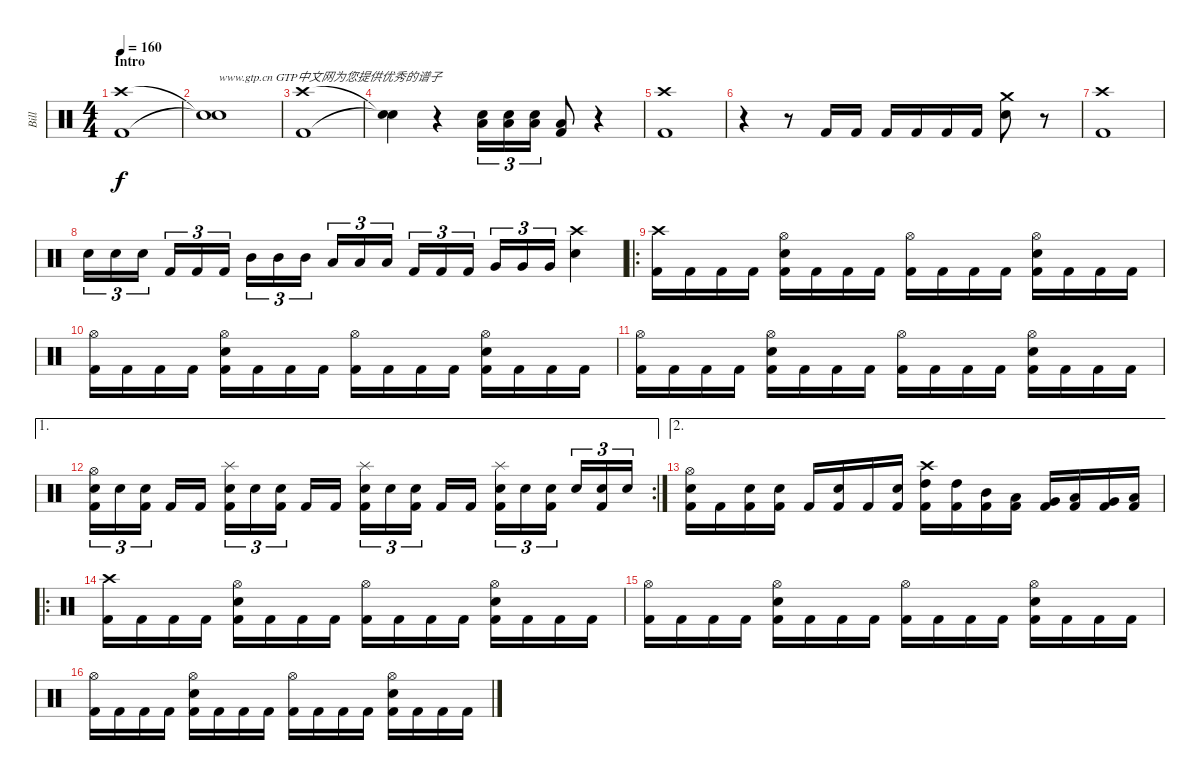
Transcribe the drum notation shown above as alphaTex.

\track ("Bill" "Bill") {instrument percussion}
\staff {score}
\articulation defaults
\ts (4 4)
\section ("" "Intro")
\tempo 160
\clef neutral
\ks c
("Crash high (hit)" "Kick (hit) 2").1{dy f} |
("Snare (hit)"{t} "Snare (hit)"{t}).1{txt "www.gtp.cn GTP中文网为您提供优秀的谱子"} |
("Crash high (hit)" "Kick (hit) 2").1 |
("Snare (hit)"{t} "Snare (hit)"{t}).4 r.4 ("Low Floor Tom (hit)" "Electric Snare (hit)").16{tu (3 2)} ("Low Floor Tom (hit)" "Electric Snare (hit)").16{tu (3 2)} ("Low Floor Tom (hit)" "Electric Snare (hit)").16{tu (3 2)} ("Low Floor Tom (hit)" "Kick (hit) 2").8 r.4 |
("Crash high (hit)" "Kick (hit) 2").1 |
r.4 r.8 "Kick (hit) 2".16 "Kick (hit) 2".16 "Kick (hit) 2".16 "Kick (hit) 2".16 "Kick (hit) 2".16 "Kick (hit) 2".16 ("Crash medium (hit)" "Electric Snare (hit)").8 r.8 |
("Crash high (hit)" "Kick (hit) 2").1 |
"Electric Snare (hit)".16{tu (3 2)} "Electric Snare (hit)".16{tu (3 2)} "Electric Snare (hit)".16{tu (3 2)} "Kick (hit) 2".16{tu (3 2)} "Kick (hit) 2".16{tu (3 2)} "Kick (hit) 2".16{tu (3 2)} "Mid Tom (hit)".16{tu (3 2)} "Mid Tom (hit)".16{tu (3 2)} "Mid Tom (hit)".16{tu (3 2)} "Low Tom (hit)".16{tu (3 2)} "Low Tom (hit)".16{tu (3 2)} "Low Tom (hit)".16{tu (3 2)} "Kick (hit) 2".16{tu (3 2)} "Kick (hit) 2".16{tu (3 2)} "Kick (hit) 2".16{tu (3 2)} "Very Low Tom (hit)".16{tu (3 2)} "Very Low Tom (hit)".16{tu (3 2)} "Very Low Tom (hit)".16{tu (3 2)} ("Crash high (hit)" "Electric Snare (hit)").4 |
\ro
("Crash high (hit)" "Kick (hit) 2").16 "Kick (hit) 2".16 "Kick (hit) 2".16 "Kick (hit) 2".16 ("Hi-Hat (open)" "Electric Snare (hit)" "Kick (hit) 2").16 "Kick (hit) 2".16 "Kick (hit) 2".16 "Kick (hit) 2".16 ("Hi-Hat (open)" "Kick (hit) 2").16 "Kick (hit) 2".16 "Kick (hit) 2".16 "Kick (hit) 2".16 ("Hi-Hat (open)" "Electric Snare (hit)" "Kick (hit) 2").16 "Kick (hit) 2".16 "Kick (hit) 2".16 "Kick (hit) 2".16 |
("Hi-Hat (open)" "Kick (hit) 2").16 "Kick (hit) 2".16 "Kick (hit) 2".16 "Kick (hit) 2".16 ("Hi-Hat (open)" "Electric Snare (hit)" "Kick (hit) 2").16 "Kick (hit) 2".16 "Kick (hit) 2".16 "Kick (hit) 2".16 ("Hi-Hat (open)" "Kick (hit) 2").16 "Kick (hit) 2".16 "Kick (hit) 2".16 "Kick (hit) 2".16 ("Hi-Hat (open)" "Electric Snare (hit)" "Kick (hit) 2").16 "Kick (hit) 2".16 "Kick (hit) 2".16 "Kick (hit) 2".16 |
("Hi-Hat (open)" "Kick (hit) 2").16 "Kick (hit) 2".16 "Kick (hit) 2".16 "Kick (hit) 2".16 ("Hi-Hat (open)" "Electric Snare (hit)" "Kick (hit) 2").16 "Kick (hit) 2".16 "Kick (hit) 2".16 "Kick (hit) 2".16 ("Hi-Hat (open)" "Kick (hit) 2").16 "Kick (hit) 2".16 "Kick (hit) 2".16 "Kick (hit) 2".16 ("Hi-Hat (open)" "Electric Snare (hit)" "Kick (hit) 2").16 "Kick (hit) 2".16 "Kick (hit) 2".16 "Kick (hit) 2".16 |
\ae 1
\rc 2
("Hi-Hat (open)" "Electric Snare (hit)" "Kick (hit) 2").16{tu (3 2)} "Electric Snare (hit)".16{tu (3 2)} ("Electric Snare (hit)" "Kick (hit) 2").16{tu (3 2)} "Kick (hit) 2".16 "Kick (hit) 2".16 ("Splash (hit)" "Electric Snare (hit)" "Kick (hit) 2").16{tu (3 2)} "Electric Snare (hit)".16{tu (3 2)} ("Electric Snare (hit)" "Kick (hit) 2").16{tu (3 2)} "Kick (hit) 2".16 "Kick (hit) 2".16 ("Splash (hit)" "Electric Snare (hit)" "Kick (hit) 2").16{tu (3 2)} "Electric Snare (hit)".16{tu (3 2)} ("Electric Snare (hit)" "Kick (hit) 2").16{tu (3 2)} "Kick (hit) 2".16 "Kick (hit) 2".16 ("Splash (hit)" "Electric Snare (hit)" "Kick (hit) 2").16{tu (3 2)} "Electric Snare (hit)".16{tu (3 2)} ("Electric Snare (hit)" "Kick (hit) 2").16{tu (3 2)} "Electric Snare (hit)".16{tu (3 2)} ("Electric Snare (hit)" "Kick (hit) 2").16{tu (3 2)} "Electric Snare (hit)".16{tu (3 2)} |
\ae 2
("Hi-Hat (open)" "Electric Snare (hit)" "Kick (hit) 2").16 "Kick (hit) 2".16 ("Electric Snare (hit)" "Kick (hit) 2").16 ("Electric Snare (hit)" "Kick (hit) 2").16 "Kick (hit) 2".16 ("Electric Snare (hit)" "Kick (hit) 2").16 "Kick (hit) 2".16 ("Electric Snare (hit)" "Kick (hit) 2").16 ("Crash high (hit)" "High Tom (hit)" "Kick (hit) 2").16 ("High Tom (hit)" "Kick (hit) 2").16 ("Mid Tom (hit)" "Kick (hit) 2").16 ("Low Tom (hit)" "Kick (hit) 2").16 ("Very Low Tom (hit)" "Kick (hit) 2").16 ("Low Floor Tom (hit)" "Kick (hit) 2").16 ("Very Low Tom (hit)" "Kick (hit) 2").16 ("Low Floor Tom (hit)" "Kick (hit) 2").16 |
\ro
("Crash high (hit)" "Kick (hit) 2").16 "Kick (hit) 2".16 "Kick (hit) 2".16 "Kick (hit) 2".16 ("Hi-Hat (open)" "Electric Snare (hit)" "Kick (hit) 2").16 "Kick (hit) 2".16 "Kick (hit) 2".16 "Kick (hit) 2".16 ("Hi-Hat (open)" "Kick (hit) 2").16 "Kick (hit) 2".16 "Kick (hit) 2".16 "Kick (hit) 2".16 ("Hi-Hat (open)" "Electric Snare (hit)" "Kick (hit) 2").16 "Kick (hit) 2".16 "Kick (hit) 2".16 "Kick (hit) 2".16 |
("Hi-Hat (open)" "Kick (hit) 2").16 "Kick (hit) 2".16 "Kick (hit) 2".16 "Kick (hit) 2".16 ("Hi-Hat (open)" "Electric Snare (hit)" "Kick (hit) 2").16 "Kick (hit) 2".16 "Kick (hit) 2".16 "Kick (hit) 2".16 ("Hi-Hat (open)" "Kick (hit) 2").16 "Kick (hit) 2".16 "Kick (hit) 2".16 "Kick (hit) 2".16 ("Hi-Hat (open)" "Electric Snare (hit)" "Kick (hit) 2").16 "Kick (hit) 2".16 "Kick (hit) 2".16 "Kick (hit) 2".16 |
("Hi-Hat (open)" "Kick (hit) 2").16 "Kick (hit) 2".16 "Kick (hit) 2".16 "Kick (hit) 2".16 ("Hi-Hat (open)" "Electric Snare (hit)" "Kick (hit) 2").16 "Kick (hit) 2".16 "Kick (hit) 2".16 "Kick (hit) 2".16 ("Hi-Hat (open)" "Kick (hit) 2").16 "Kick (hit) 2".16 "Kick (hit) 2".16 "Kick (hit) 2".16 ("Hi-Hat (open)" "Electric Snare (hit)" "Kick (hit) 2").16 "Kick (hit) 2".16 "Kick (hit) 2".16 "Kick (hit) 2".16
